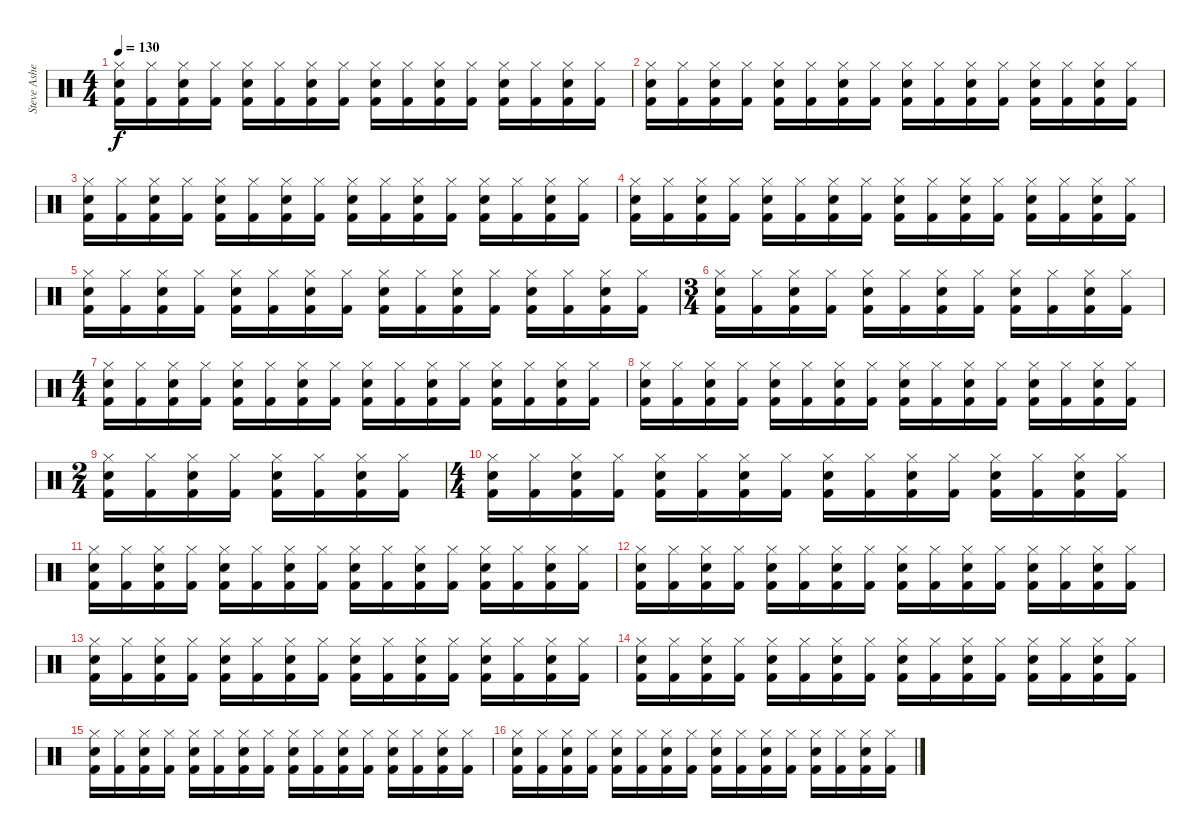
\track ("Steve Asheim" "Steve Ashe") {instrument percussion}
\staff {score}
\articulation defaults
\ts (4 4)
\tempo 130
\clef neutral
\ks c
("Kick (hit) 2" "Electric Snare (hit)" "Hi-Hat (closed)").16{dy f} ("Kick (hit) 2" "Hi-Hat (closed)").16 ("Kick (hit) 2" "Electric Snare (hit)" "Hi-Hat (closed)").16 ("Kick (hit) 2" "Hi-Hat (closed)").16 ("Kick (hit) 2" "Electric Snare (hit)" "Hi-Hat (closed)").16 ("Kick (hit) 2" "Hi-Hat (closed)").16 ("Kick (hit) 2" "Electric Snare (hit)" "Hi-Hat (closed)").16 ("Kick (hit) 2" "Hi-Hat (closed)").16 ("Kick (hit) 2" "Electric Snare (hit)" "Hi-Hat (closed)").16 ("Kick (hit) 2" "Hi-Hat (closed)").16 ("Kick (hit) 2" "Electric Snare (hit)" "Hi-Hat (closed)").16 ("Kick (hit) 2" "Hi-Hat (closed)").16 ("Kick (hit) 2" "Electric Snare (hit)" "Hi-Hat (closed)").16 ("Kick (hit) 2" "Hi-Hat (closed)").16 ("Kick (hit) 2" "Electric Snare (hit)" "Hi-Hat (closed)").16 ("Kick (hit) 2" "Hi-Hat (closed)").16 |
("Kick (hit) 2" "Electric Snare (hit)" "Hi-Hat (closed)").16 ("Kick (hit) 2" "Hi-Hat (closed)").16 ("Kick (hit) 2" "Electric Snare (hit)" "Hi-Hat (closed)").16 ("Kick (hit) 2" "Hi-Hat (closed)").16 ("Kick (hit) 2" "Electric Snare (hit)" "Hi-Hat (closed)").16 ("Kick (hit) 2" "Hi-Hat (closed)").16 ("Kick (hit) 2" "Electric Snare (hit)" "Hi-Hat (closed)").16 ("Kick (hit) 2" "Hi-Hat (closed)").16 ("Kick (hit) 2" "Electric Snare (hit)" "Hi-Hat (closed)").16 ("Kick (hit) 2" "Hi-Hat (closed)").16 ("Kick (hit) 2" "Electric Snare (hit)" "Hi-Hat (closed)").16 ("Kick (hit) 2" "Hi-Hat (closed)").16 ("Kick (hit) 2" "Electric Snare (hit)" "Hi-Hat (closed)").16 ("Kick (hit) 2" "Hi-Hat (closed)").16 ("Kick (hit) 2" "Electric Snare (hit)" "Hi-Hat (closed)").16 ("Kick (hit) 2" "Hi-Hat (closed)").16 |
("Kick (hit) 2" "Electric Snare (hit)" "Hi-Hat (closed)").16 ("Kick (hit) 2" "Hi-Hat (closed)").16 ("Kick (hit) 2" "Electric Snare (hit)" "Hi-Hat (closed)").16 ("Kick (hit) 2" "Hi-Hat (closed)").16 ("Kick (hit) 2" "Electric Snare (hit)" "Hi-Hat (closed)").16 ("Kick (hit) 2" "Hi-Hat (closed)").16 ("Kick (hit) 2" "Electric Snare (hit)" "Hi-Hat (closed)").16 ("Kick (hit) 2" "Hi-Hat (closed)").16 ("Kick (hit) 2" "Electric Snare (hit)" "Hi-Hat (closed)").16 ("Kick (hit) 2" "Hi-Hat (closed)").16 ("Kick (hit) 2" "Electric Snare (hit)" "Hi-Hat (closed)").16 ("Kick (hit) 2" "Hi-Hat (closed)").16 ("Kick (hit) 2" "Electric Snare (hit)" "Hi-Hat (closed)").16 ("Kick (hit) 2" "Hi-Hat (closed)").16 ("Kick (hit) 2" "Electric Snare (hit)" "Hi-Hat (closed)").16 ("Kick (hit) 2" "Hi-Hat (closed)").16 |
("Kick (hit) 2" "Electric Snare (hit)" "Hi-Hat (closed)").16 ("Kick (hit) 2" "Hi-Hat (closed)").16 ("Kick (hit) 2" "Electric Snare (hit)" "Hi-Hat (closed)").16 ("Kick (hit) 2" "Hi-Hat (closed)").16 ("Kick (hit) 2" "Electric Snare (hit)" "Hi-Hat (closed)").16 ("Kick (hit) 2" "Hi-Hat (closed)").16 ("Kick (hit) 2" "Electric Snare (hit)" "Hi-Hat (closed)").16 ("Kick (hit) 2" "Hi-Hat (closed)").16 ("Kick (hit) 2" "Electric Snare (hit)" "Hi-Hat (closed)").16 ("Kick (hit) 2" "Hi-Hat (closed)").16 ("Kick (hit) 2" "Electric Snare (hit)" "Hi-Hat (closed)").16 ("Kick (hit) 2" "Hi-Hat (closed)").16 ("Kick (hit) 2" "Electric Snare (hit)" "Hi-Hat (closed)").16 ("Kick (hit) 2" "Hi-Hat (closed)").16 ("Kick (hit) 2" "Electric Snare (hit)" "Hi-Hat (closed)").16 ("Kick (hit) 2" "Hi-Hat (closed)").16 |
("Kick (hit) 2" "Electric Snare (hit)" "Hi-Hat (closed)").16 ("Kick (hit) 2" "Hi-Hat (closed)").16 ("Kick (hit) 2" "Electric Snare (hit)" "Hi-Hat (closed)").16 ("Kick (hit) 2" "Hi-Hat (closed)").16 ("Kick (hit) 2" "Electric Snare (hit)" "Hi-Hat (closed)").16 ("Kick (hit) 2" "Hi-Hat (closed)").16 ("Kick (hit) 2" "Electric Snare (hit)" "Hi-Hat (closed)").16 ("Kick (hit) 2" "Hi-Hat (closed)").16 ("Kick (hit) 2" "Electric Snare (hit)" "Hi-Hat (closed)").16 ("Kick (hit) 2" "Hi-Hat (closed)").16 ("Kick (hit) 2" "Electric Snare (hit)" "Hi-Hat (closed)").16 ("Kick (hit) 2" "Hi-Hat (closed)").16 ("Kick (hit) 2" "Electric Snare (hit)" "Hi-Hat (closed)").16 ("Kick (hit) 2" "Hi-Hat (closed)").16 ("Kick (hit) 2" "Electric Snare (hit)" "Hi-Hat (closed)").16 ("Kick (hit) 2" "Hi-Hat (closed)").16 |
\ts (3 4)
("Kick (hit) 2" "Electric Snare (hit)" "Hi-Hat (closed)").16 ("Kick (hit) 2" "Hi-Hat (closed)").16 ("Kick (hit) 2" "Electric Snare (hit)" "Hi-Hat (closed)").16 ("Kick (hit) 2" "Hi-Hat (closed)").16 ("Kick (hit) 2" "Electric Snare (hit)" "Hi-Hat (closed)").16 ("Kick (hit) 2" "Hi-Hat (closed)").16 ("Kick (hit) 2" "Electric Snare (hit)" "Hi-Hat (closed)").16 ("Kick (hit) 2" "Hi-Hat (closed)").16 ("Kick (hit) 2" "Electric Snare (hit)" "Hi-Hat (closed)").16 ("Kick (hit) 2" "Hi-Hat (closed)").16 ("Kick (hit) 2" "Electric Snare (hit)" "Hi-Hat (closed)").16 ("Kick (hit) 2" "Hi-Hat (closed)").16 |
\ts (4 4)
("Kick (hit) 2" "Electric Snare (hit)" "Hi-Hat (closed)").16 ("Kick (hit) 2" "Hi-Hat (closed)").16 ("Kick (hit) 2" "Electric Snare (hit)" "Hi-Hat (closed)").16 ("Kick (hit) 2" "Hi-Hat (closed)").16 ("Kick (hit) 2" "Electric Snare (hit)" "Hi-Hat (closed)").16 ("Kick (hit) 2" "Hi-Hat (closed)").16 ("Kick (hit) 2" "Electric Snare (hit)" "Hi-Hat (closed)").16 ("Kick (hit) 2" "Hi-Hat (closed)").16 ("Kick (hit) 2" "Electric Snare (hit)" "Hi-Hat (closed)").16 ("Kick (hit) 2" "Hi-Hat (closed)").16 ("Kick (hit) 2" "Electric Snare (hit)" "Hi-Hat (closed)").16 ("Kick (hit) 2" "Hi-Hat (closed)").16 ("Kick (hit) 2" "Electric Snare (hit)" "Hi-Hat (closed)").16 ("Kick (hit) 2" "Hi-Hat (closed)").16 ("Kick (hit) 2" "Electric Snare (hit)" "Hi-Hat (closed)").16 ("Kick (hit) 2" "Hi-Hat (closed)").16 |
("Kick (hit) 2" "Electric Snare (hit)" "Hi-Hat (closed)").16 ("Kick (hit) 2" "Hi-Hat (closed)").16 ("Kick (hit) 2" "Electric Snare (hit)" "Hi-Hat (closed)").16 ("Kick (hit) 2" "Hi-Hat (closed)").16 ("Kick (hit) 2" "Electric Snare (hit)" "Hi-Hat (closed)").16 ("Kick (hit) 2" "Hi-Hat (closed)").16 ("Kick (hit) 2" "Electric Snare (hit)" "Hi-Hat (closed)").16 ("Kick (hit) 2" "Hi-Hat (closed)").16 ("Kick (hit) 2" "Electric Snare (hit)" "Hi-Hat (closed)").16 ("Kick (hit) 2" "Hi-Hat (closed)").16 ("Kick (hit) 2" "Electric Snare (hit)" "Hi-Hat (closed)").16 ("Kick (hit) 2" "Hi-Hat (closed)").16 ("Kick (hit) 2" "Electric Snare (hit)" "Hi-Hat (closed)").16 ("Kick (hit) 2" "Hi-Hat (closed)").16 ("Kick (hit) 2" "Electric Snare (hit)" "Hi-Hat (closed)").16 ("Kick (hit) 2" "Hi-Hat (closed)").16 |
\ts (2 4)
("Kick (hit) 2" "Electric Snare (hit)" "Hi-Hat (closed)").16 ("Kick (hit) 2" "Hi-Hat (closed)").16 ("Kick (hit) 2" "Electric Snare (hit)" "Hi-Hat (closed)").16 ("Kick (hit) 2" "Hi-Hat (closed)").16 ("Kick (hit) 2" "Electric Snare (hit)" "Hi-Hat (closed)").16 ("Kick (hit) 2" "Hi-Hat (closed)").16 ("Kick (hit) 2" "Electric Snare (hit)" "Hi-Hat (closed)").16 ("Kick (hit) 2" "Hi-Hat (closed)").16 |
\ts (4 4)
("Kick (hit) 2" "Electric Snare (hit)" "Hi-Hat (closed)").16 ("Kick (hit) 2" "Hi-Hat (closed)").16 ("Kick (hit) 2" "Electric Snare (hit)" "Hi-Hat (closed)").16 ("Kick (hit) 2" "Hi-Hat (closed)").16 ("Kick (hit) 2" "Electric Snare (hit)" "Hi-Hat (closed)").16 ("Kick (hit) 2" "Hi-Hat (closed)").16 ("Kick (hit) 2" "Electric Snare (hit)" "Hi-Hat (closed)").16 ("Kick (hit) 2" "Hi-Hat (closed)").16 ("Kick (hit) 2" "Electric Snare (hit)" "Hi-Hat (closed)").16 ("Kick (hit) 2" "Hi-Hat (closed)").16 ("Kick (hit) 2" "Electric Snare (hit)" "Hi-Hat (closed)").16 ("Kick (hit) 2" "Hi-Hat (closed)").16 ("Kick (hit) 2" "Electric Snare (hit)" "Hi-Hat (closed)").16 ("Kick (hit) 2" "Hi-Hat (closed)").16 ("Kick (hit) 2" "Electric Snare (hit)" "Hi-Hat (closed)").16 ("Kick (hit) 2" "Hi-Hat (closed)").16 |
("Kick (hit) 2" "Electric Snare (hit)" "Hi-Hat (closed)").16 ("Kick (hit) 2" "Hi-Hat (closed)").16 ("Kick (hit) 2" "Electric Snare (hit)" "Hi-Hat (closed)").16 ("Kick (hit) 2" "Hi-Hat (closed)").16 ("Kick (hit) 2" "Electric Snare (hit)" "Hi-Hat (closed)").16 ("Kick (hit) 2" "Hi-Hat (closed)").16 ("Kick (hit) 2" "Electric Snare (hit)" "Hi-Hat (closed)").16 ("Kick (hit) 2" "Hi-Hat (closed)").16 ("Kick (hit) 2" "Electric Snare (hit)" "Hi-Hat (closed)").16 ("Kick (hit) 2" "Hi-Hat (closed)").16 ("Kick (hit) 2" "Electric Snare (hit)" "Hi-Hat (closed)").16 ("Kick (hit) 2" "Hi-Hat (closed)").16 ("Kick (hit) 2" "Electric Snare (hit)" "Hi-Hat (closed)").16 ("Kick (hit) 2" "Hi-Hat (closed)").16 ("Kick (hit) 2" "Electric Snare (hit)" "Hi-Hat (closed)").16 ("Kick (hit) 2" "Hi-Hat (closed)").16 |
("Kick (hit) 2" "Electric Snare (hit)" "Hi-Hat (closed)").16 ("Kick (hit) 2" "Hi-Hat (closed)").16 ("Kick (hit) 2" "Electric Snare (hit)" "Hi-Hat (closed)").16 ("Kick (hit) 2" "Hi-Hat (closed)").16 ("Kick (hit) 2" "Electric Snare (hit)" "Hi-Hat (closed)").16 ("Kick (hit) 2" "Hi-Hat (closed)").16 ("Kick (hit) 2" "Electric Snare (hit)" "Hi-Hat (closed)").16 ("Kick (hit) 2" "Hi-Hat (closed)").16 ("Kick (hit) 2" "Electric Snare (hit)" "Hi-Hat (closed)").16 ("Kick (hit) 2" "Hi-Hat (closed)").16 ("Kick (hit) 2" "Electric Snare (hit)" "Hi-Hat (closed)").16 ("Kick (hit) 2" "Hi-Hat (closed)").16 ("Kick (hit) 2" "Electric Snare (hit)" "Hi-Hat (closed)").16 ("Kick (hit) 2" "Hi-Hat (closed)").16 ("Kick (hit) 2" "Electric Snare (hit)" "Hi-Hat (closed)").16 ("Kick (hit) 2" "Hi-Hat (closed)").16 |
("Kick (hit) 2" "Electric Snare (hit)" "Hi-Hat (closed)").16 ("Kick (hit) 2" "Hi-Hat (closed)").16 ("Kick (hit) 2" "Electric Snare (hit)" "Hi-Hat (closed)").16 ("Kick (hit) 2" "Hi-Hat (closed)").16 ("Kick (hit) 2" "Electric Snare (hit)" "Hi-Hat (closed)").16 ("Kick (hit) 2" "Hi-Hat (closed)").16 ("Kick (hit) 2" "Electric Snare (hit)" "Hi-Hat (closed)").16 ("Kick (hit) 2" "Hi-Hat (closed)").16 ("Kick (hit) 2" "Electric Snare (hit)" "Hi-Hat (closed)").16 ("Kick (hit) 2" "Hi-Hat (closed)").16 ("Kick (hit) 2" "Electric Snare (hit)" "Hi-Hat (closed)").16 ("Kick (hit) 2" "Hi-Hat (closed)").16 ("Kick (hit) 2" "Electric Snare (hit)" "Hi-Hat (closed)").16 ("Kick (hit) 2" "Hi-Hat (closed)").16 ("Kick (hit) 2" "Electric Snare (hit)" "Hi-Hat (closed)").16 ("Kick (hit) 2" "Hi-Hat (closed)").16 |
("Kick (hit) 2" "Electric Snare (hit)" "Hi-Hat (closed)").16 ("Kick (hit) 2" "Hi-Hat (closed)").16 ("Kick (hit) 2" "Electric Snare (hit)" "Hi-Hat (closed)").16 ("Kick (hit) 2" "Hi-Hat (closed)").16 ("Kick (hit) 2" "Electric Snare (hit)" "Hi-Hat (closed)").16 ("Kick (hit) 2" "Hi-Hat (closed)").16 ("Kick (hit) 2" "Electric Snare (hit)" "Hi-Hat (closed)").16 ("Kick (hit) 2" "Hi-Hat (closed)").16 ("Kick (hit) 2" "Electric Snare (hit)" "Hi-Hat (closed)").16 ("Kick (hit) 2" "Hi-Hat (closed)").16 ("Kick (hit) 2" "Electric Snare (hit)" "Hi-Hat (closed)").16 ("Kick (hit) 2" "Hi-Hat (closed)").16 ("Kick (hit) 2" "Electric Snare (hit)" "Hi-Hat (closed)").16 ("Kick (hit) 2" "Hi-Hat (closed)").16 ("Kick (hit) 2" "Electric Snare (hit)" "Hi-Hat (closed)").16 ("Kick (hit) 2" "Hi-Hat (closed)").16 |
("Kick (hit) 2" "Electric Snare (hit)" "Hi-Hat (closed)").16 ("Kick (hit) 2" "Hi-Hat (closed)").16 ("Kick (hit) 2" "Electric Snare (hit)" "Hi-Hat (closed)").16 ("Kick (hit) 2" "Hi-Hat (closed)").16 ("Kick (hit) 2" "Electric Snare (hit)" "Hi-Hat (closed)").16 ("Kick (hit) 2" "Hi-Hat (closed)").16 ("Kick (hit) 2" "Electric Snare (hit)" "Hi-Hat (closed)").16 ("Kick (hit) 2" "Hi-Hat (closed)").16 ("Kick (hit) 2" "Electric Snare (hit)" "Hi-Hat (closed)").16 ("Kick (hit) 2" "Hi-Hat (closed)").16 ("Kick (hit) 2" "Electric Snare (hit)" "Hi-Hat (closed)").16 ("Kick (hit) 2" "Hi-Hat (closed)").16 ("Kick (hit) 2" "Electric Snare (hit)" "Hi-Hat (closed)").16 ("Kick (hit) 2" "Hi-Hat (closed)").16 ("Kick (hit) 2" "Electric Snare (hit)" "Hi-Hat (closed)").16 ("Kick (hit) 2" "Hi-Hat (closed)").16 |
("Kick (hit) 2" "Electric Snare (hit)" "Hi-Hat (closed)").16 ("Kick (hit) 2" "Hi-Hat (closed)").16 ("Kick (hit) 2" "Electric Snare (hit)" "Hi-Hat (closed)").16 ("Kick (hit) 2" "Hi-Hat (closed)").16 ("Kick (hit) 2" "Electric Snare (hit)" "Hi-Hat (closed)").16 ("Kick (hit) 2" "Hi-Hat (closed)").16 ("Kick (hit) 2" "Electric Snare (hit)" "Hi-Hat (closed)").16 ("Kick (hit) 2" "Hi-Hat (closed)").16 ("Kick (hit) 2" "Electric Snare (hit)" "Hi-Hat (closed)").16 ("Kick (hit) 2" "Hi-Hat (closed)").16 ("Kick (hit) 2" "Electric Snare (hit)" "Hi-Hat (closed)").16 ("Kick (hit) 2" "Hi-Hat (closed)").16 ("Kick (hit) 2" "Electric Snare (hit)" "Hi-Hat (closed)").16 ("Kick (hit) 2" "Hi-Hat (closed)").16 ("Kick (hit) 2" "Electric Snare (hit)" "Hi-Hat (closed)").16 ("Kick (hit) 2" "Hi-Hat (closed)").16
